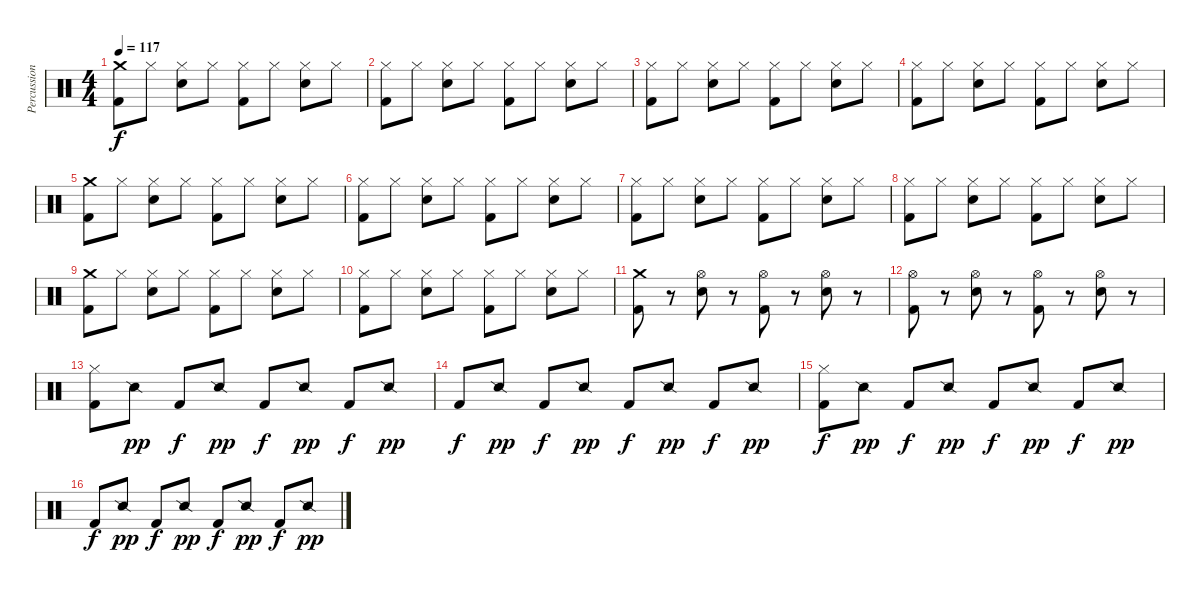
\track ("Percussions" "Percussion") {instrument percussion}
\staff {score}
\articulation defaults
\ts (4 4)
\tempo 117
\clef neutral
\ks c
("Crash medium (hit)" "Kick (hit) 2").8{dy f} "Hi-Hat (closed)".8 ("Hi-Hat (closed)" "Electric Snare (hit)").8 "Hi-Hat (closed)".8 ("Hi-Hat (closed)" "Kick (hit) 2").8 "Hi-Hat (closed)".8 ("Hi-Hat (closed)" "Electric Snare (hit)").8 "Hi-Hat (closed)".8 |
("Hi-Hat (closed)" "Kick (hit) 2").8 "Hi-Hat (closed)".8 ("Hi-Hat (closed)" "Electric Snare (hit)").8 "Hi-Hat (closed)".8 ("Hi-Hat (closed)" "Kick (hit) 2").8 "Hi-Hat (closed)".8 ("Hi-Hat (closed)" "Electric Snare (hit)").8 "Hi-Hat (closed)".8 |
("Hi-Hat (closed)" "Kick (hit) 2").8 "Hi-Hat (closed)".8 ("Hi-Hat (closed)" "Electric Snare (hit)").8 "Hi-Hat (closed)".8 ("Hi-Hat (closed)" "Kick (hit) 2").8 "Hi-Hat (closed)".8 ("Hi-Hat (closed)" "Electric Snare (hit)").8 "Hi-Hat (closed)".8 |
("Hi-Hat (closed)" "Kick (hit) 2").8 "Hi-Hat (closed)".8 ("Hi-Hat (closed)" "Electric Snare (hit)").8 "Hi-Hat (closed)".8 ("Hi-Hat (closed)" "Kick (hit) 2").8 "Hi-Hat (closed)".8 ("Hi-Hat (closed)" "Electric Snare (hit)").8 "Hi-Hat (closed)".8 |
("Crash medium (hit)" "Kick (hit) 2").8 "Hi-Hat (closed)".8 ("Hi-Hat (closed)" "Electric Snare (hit)").8 "Hi-Hat (closed)".8 ("Hi-Hat (closed)" "Kick (hit) 2").8 "Hi-Hat (closed)".8 ("Hi-Hat (closed)" "Electric Snare (hit)").8 "Hi-Hat (closed)".8 |
("Hi-Hat (closed)" "Kick (hit) 2").8 "Hi-Hat (closed)".8 ("Hi-Hat (closed)" "Electric Snare (hit)").8 "Hi-Hat (closed)".8 ("Hi-Hat (closed)" "Kick (hit) 2").8 "Hi-Hat (closed)".8 ("Hi-Hat (closed)" "Electric Snare (hit)").8 "Hi-Hat (closed)".8 |
("Hi-Hat (closed)" "Kick (hit) 2").8 "Hi-Hat (closed)".8 ("Hi-Hat (closed)" "Electric Snare (hit)").8 "Hi-Hat (closed)".8 ("Hi-Hat (closed)" "Kick (hit) 2").8 "Hi-Hat (closed)".8 ("Hi-Hat (closed)" "Electric Snare (hit)").8 "Hi-Hat (closed)".8 |
("Hi-Hat (closed)" "Kick (hit) 2").8 "Hi-Hat (closed)".8 ("Hi-Hat (closed)" "Electric Snare (hit)").8 "Hi-Hat (closed)".8 ("Hi-Hat (closed)" "Kick (hit) 2").8 "Hi-Hat (closed)".8 ("Hi-Hat (closed)" "Electric Snare (hit)").8 "Hi-Hat (closed)".8 |
("Crash medium (hit)" "Kick (hit) 2").8 "Hi-Hat (closed)".8 ("Hi-Hat (closed)" "Electric Snare (hit)").8 "Hi-Hat (closed)".8 ("Hi-Hat (closed)" "Kick (hit) 2").8 "Hi-Hat (closed)".8 ("Hi-Hat (closed)" "Electric Snare (hit)").8 "Hi-Hat (closed)".8 |
("Hi-Hat (closed)" "Kick (hit) 2").8 "Hi-Hat (closed)".8 ("Hi-Hat (closed)" "Electric Snare (hit)").8 "Hi-Hat (closed)".8 ("Hi-Hat (closed)" "Kick (hit) 2").8 "Hi-Hat (closed)".8 ("Hi-Hat (closed)" "Electric Snare (hit)").8 "Hi-Hat (closed)".8 |
("Crash medium (hit)" "Kick (hit) 2").8 r.8 ("Hi-Hat (open)" "Electric Snare (hit)").8 r.8 ("Hi-Hat (open)" "Kick (hit) 2").8 r.8 ("Hi-Hat (open)" "Electric Snare (hit)").8 r.8 |
("Hi-Hat (open)" "Kick (hit) 2").8 r.8 ("Hi-Hat (open)" "Electric Snare (hit)").8 r.8 ("Hi-Hat (open)" "Kick (hit) 2").8 r.8 ("Hi-Hat (open)" "Electric Snare (hit)").8 r.8 |
("Hi-Hat (closed)" "Kick (hit) 2").8 "Snare (side stick) 2".8{dy pp} "Kick (hit) 2".8{dy f} "Snare (side stick) 2".8{dy pp} "Kick (hit) 2".8{dy f} "Snare (side stick) 2".8{dy pp} "Kick (hit) 2".8{dy f} "Snare (side stick) 2".8{dy pp} |
"Kick (hit) 2".8{dy f} "Snare (side stick) 2".8{dy pp} "Kick (hit) 2".8{dy f} "Snare (side stick) 2".8{dy pp} "Kick (hit) 2".8{dy f} "Snare (side stick) 2".8{dy pp} "Kick (hit) 2".8{dy f} "Snare (side stick) 2".8{dy pp} |
("Hi-Hat (closed)" "Kick (hit) 2").8{dy f} "Snare (side stick) 2".8{dy pp} "Kick (hit) 2".8{dy f} "Snare (side stick) 2".8{dy pp} "Kick (hit) 2".8{dy f} "Snare (side stick) 2".8{dy pp} "Kick (hit) 2".8{dy f} "Snare (side stick) 2".8{dy pp} |
"Kick (hit) 2".8{dy f} "Snare (side stick) 2".8{dy pp} "Kick (hit) 2".8{dy f} "Snare (side stick) 2".8{dy pp} "Kick (hit) 2".8{dy f} "Snare (side stick) 2".8{dy pp} "Kick (hit) 2".8{dy f} "Snare (side stick) 2".8{dy pp}
